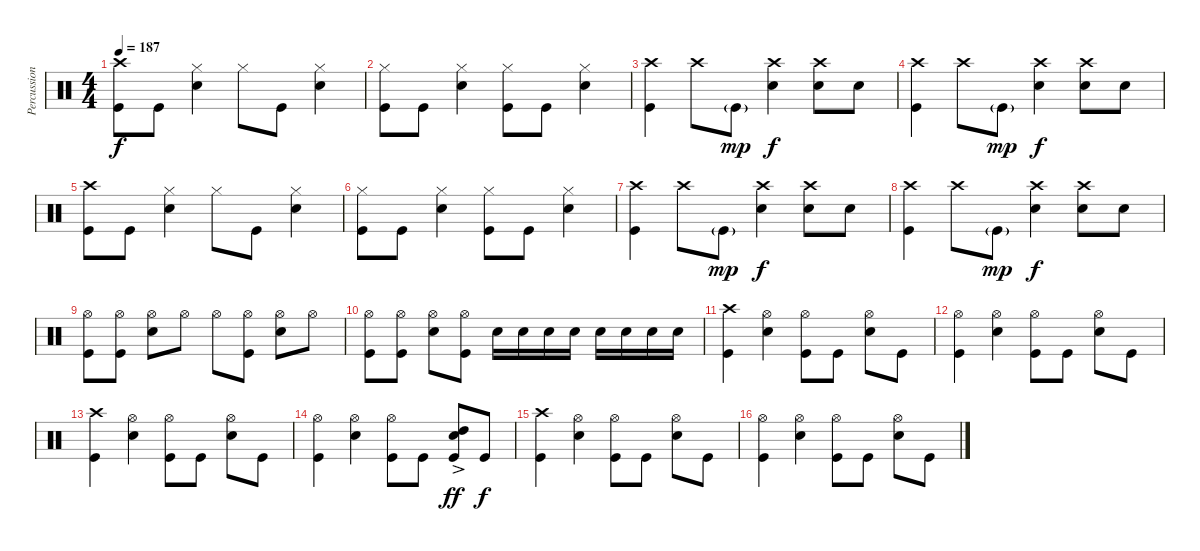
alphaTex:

\track ("Percussions" "Percussion") {instrument percussion}
\staff {score}
\articulation defaults
\ts (4 4)
\tempo 187
\clef neutral
\ks c
("Kick (hit)" "Crash high (hit)").8{dy f} "Kick (hit)".8 ("Electric Snare (hit)" "Hi-Hat (closed)").4 "Hi-Hat (closed)".8 "Kick (hit)".8 ("Electric Snare (hit)" "Hi-Hat (closed)").4 |
("Hi-Hat (closed)" "Kick (hit)").8 "Kick (hit)".8 ("Electric Snare (hit)" "Hi-Hat (closed)").4 ("Hi-Hat (closed)" "Kick (hit)").8 "Kick (hit)".8 ("Electric Snare (hit)" "Hi-Hat (closed)").4 |
("Kick (hit)" "Crash high (hit)").4 "Crash high (hit)".8 "Kick (hit)"{g}.8{dy mp} ("Electric Snare (hit)" "Crash high (hit)").4{dy f} ("Electric Snare (hit)" "Crash high (hit)").8 "Electric Snare (hit)".8 |
("Kick (hit)" "Crash high (hit)").4 "Crash high (hit)".8 "Kick (hit)"{g}.8{dy mp} ("Electric Snare (hit)" "Crash high (hit)").4{dy f} ("Electric Snare (hit)" "Crash high (hit)").8 "Electric Snare (hit)".8 |
("Kick (hit)" "Crash high (hit)").8 "Kick (hit)".8 ("Electric Snare (hit)" "Hi-Hat (closed)").4 "Hi-Hat (closed)".8 "Kick (hit)".8 ("Electric Snare (hit)" "Hi-Hat (closed)").4 |
("Hi-Hat (closed)" "Kick (hit)").8 "Kick (hit)".8 ("Electric Snare (hit)" "Hi-Hat (closed)").4 ("Hi-Hat (closed)" "Kick (hit)").8 "Kick (hit)".8 ("Electric Snare (hit)" "Hi-Hat (closed)").4 |
("Kick (hit)" "Crash high (hit)").4 "Crash high (hit)".8 "Kick (hit)"{g}.8{dy mp} ("Electric Snare (hit)" "Crash high (hit)").4{dy f} ("Electric Snare (hit)" "Crash high (hit)").8 "Electric Snare (hit)".8 |
("Kick (hit)" "Crash high (hit)").4 "Crash high (hit)".8 "Kick (hit)"{g}.8{dy mp} ("Electric Snare (hit)" "Crash high (hit)").4{dy f} ("Electric Snare (hit)" "Crash high (hit)").8 "Electric Snare (hit)".8 |
("Kick (hit)" "Hi-Hat (open)").8 ("Kick (hit)" "Hi-Hat (open)").8 ("Electric Snare (hit)" "Hi-Hat (open)").8 "Hi-Hat (open)".8 "Hi-Hat (open)".8 ("Kick (hit)" "Hi-Hat (open)").8 ("Electric Snare (hit)" "Hi-Hat (open)").8 "Hi-Hat (open)".8 |
("Kick (hit)" "Hi-Hat (open)").8 ("Kick (hit)" "Hi-Hat (open)").8 ("Electric Snare (hit)" "Hi-Hat (open)").8 ("Hi-Hat (open)" "Kick (hit)").8 "Electric Snare (hit)".16 "Electric Snare (hit)".16 "Electric Snare (hit)".16 "Electric Snare (hit)".16 "Electric Snare (hit)".16 "Electric Snare (hit)".16 "Electric Snare (hit)".16 "Electric Snare (hit)".16 |
("Kick (hit)" "Crash high (hit)").4 ("Electric Snare (hit)" "Hi-Hat (open)").4 ("Kick (hit)" "Hi-Hat (open)").8 "Kick (hit)".8 ("Electric Snare (hit)" "Hi-Hat (open)").8 "Kick (hit)".8 |
("Kick (hit)" "Hi-Hat (open)").4 ("Electric Snare (hit)" "Hi-Hat (open)").4 ("Kick (hit)" "Hi-Hat (open)").8 "Kick (hit)".8 ("Electric Snare (hit)" "Hi-Hat (open)").8 "Kick (hit)".8 |
("Kick (hit)" "Crash high (hit)").4 ("Electric Snare (hit)" "Hi-Hat (open)").4 ("Kick (hit)" "Hi-Hat (open)").8 "Kick (hit)".8 ("Electric Snare (hit)" "Hi-Hat (open)").8 "Kick (hit)".8 |
("Kick (hit)" "Hi-Hat (open)").4 ("Electric Snare (hit)" "Hi-Hat (open)").4 ("Kick (hit)" "Hi-Hat (open)").8 "Kick (hit)".8 ("High Tom (hit)"{ac} "Electric Snare (hit)"{ac} "Kick (hit)").8{dy ff} "Kick (hit)".8{dy f} |
("Kick (hit)" "Crash high (hit)").4 ("Electric Snare (hit)" "Hi-Hat (open)").4 ("Kick (hit)" "Hi-Hat (open)").8 "Kick (hit)".8 ("Electric Snare (hit)" "Hi-Hat (open)").8 "Kick (hit)".8 |
("Kick (hit)" "Hi-Hat (open)").4 ("Electric Snare (hit)" "Hi-Hat (open)").4 ("Kick (hit)" "Hi-Hat (open)").8 "Kick (hit)".8 ("Electric Snare (hit)" "Hi-Hat (open)").8 "Kick (hit)".8
